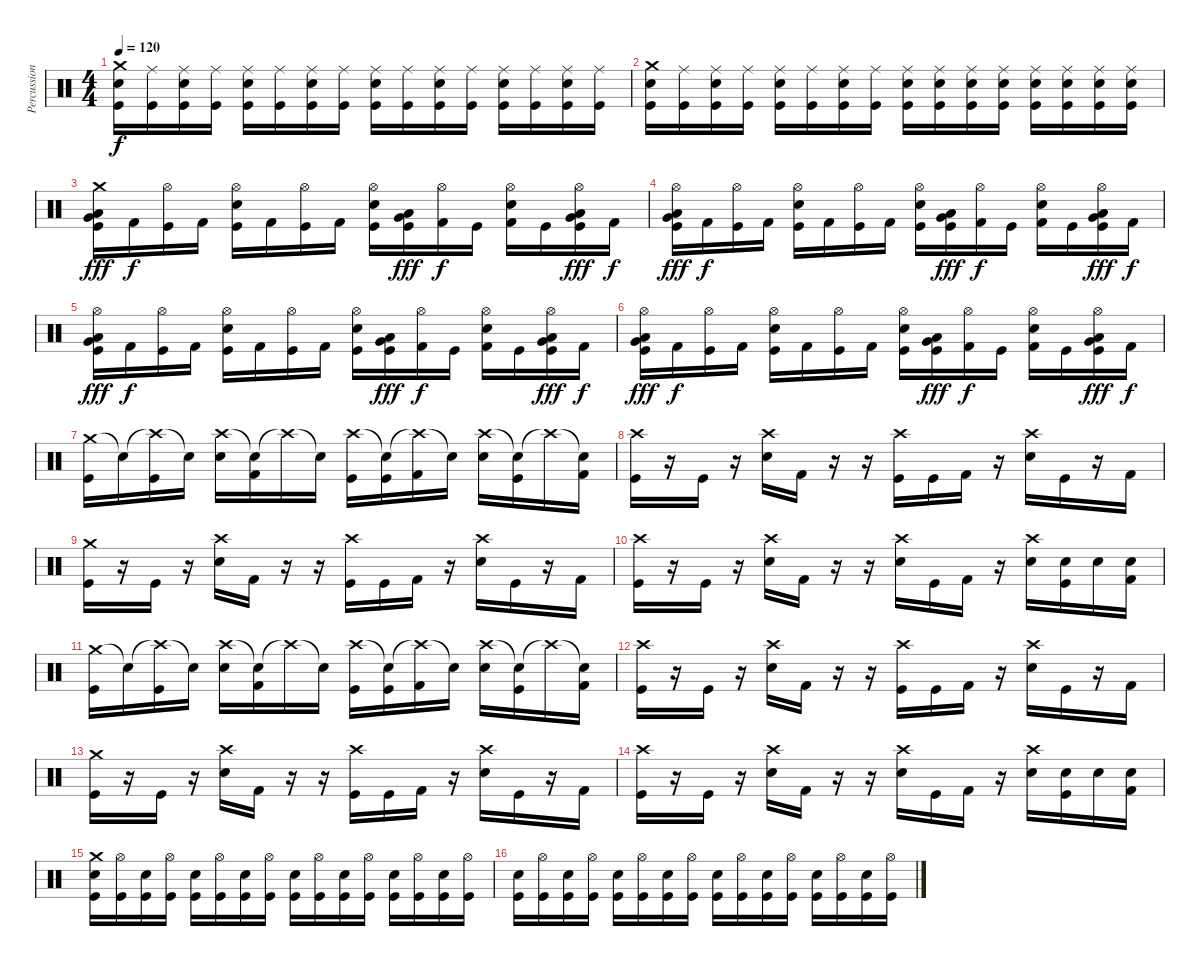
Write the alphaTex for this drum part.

\track ("Percussions" "Percussion") {instrument percussion}
\staff {score}
\articulation defaults
\ts (4 4)
\tempo 120
\clef neutral
\ks c
("Crash medium (hit)" "Electric Snare (hit)" "Kick (hit)").16{dy f} ("Ride (middle)" "Kick (hit)").16 ("Ride (middle)" "Electric Snare (hit)" "Kick (hit)").16 ("Ride (middle)" "Kick (hit)").16 ("Ride (middle)" "Electric Snare (hit)" "Kick (hit)").16 ("Ride (middle)" "Kick (hit)").16 ("Ride (middle)" "Electric Snare (hit)" "Kick (hit)").16 ("Ride (middle)" "Kick (hit)").16 ("Ride (middle)" "Electric Snare (hit)" "Kick (hit)").16 ("Ride (middle)" "Kick (hit)").16 ("Ride (middle)" "Electric Snare (hit)" "Kick (hit)").16 ("Ride (middle)" "Kick (hit)").16 ("Ride (middle)" "Electric Snare (hit)" "Kick (hit)").16 ("Ride (middle)" "Kick (hit)").16 ("Ride (middle)" "Electric Snare (hit)" "Kick (hit)").16 ("Ride (middle)" "Kick (hit)").16 |
("Crash medium (hit)" "Electric Snare (hit)" "Kick (hit)").16 ("Ride (middle)" "Kick (hit)").16 ("Ride (middle)" "Electric Snare (hit)" "Kick (hit)").16 ("Ride (middle)" "Kick (hit)").16 ("Ride (middle)" "Electric Snare (hit)" "Kick (hit)").16 ("Ride (middle)" "Kick (hit)").16 ("Ride (middle)" "Electric Snare (hit)" "Kick (hit)").16 ("Ride (middle)" "Kick (hit)").16 ("Ride (middle)" "Electric Snare (hit)" "Kick (hit)").16 ("Ride (middle)" "Electric Snare (hit)" "Kick (hit)").16 ("Ride (middle)" "Electric Snare (hit)" "Kick (hit)").16 ("Ride (middle)" "Electric Snare (hit)" "Kick (hit)").16 ("Ride (middle)" "Electric Snare (hit)" "Kick (hit)").16 ("Ride (middle)" "Electric Snare (hit)" "Kick (hit)").16 ("Ride (middle)" "Electric Snare (hit)" "Kick (hit)").16 ("Ride (middle)" "Electric Snare (hit)" "Kick (hit)").16 |
("Crash medium (hit)" "Very Low Tom (hit)" "Low Floor Tom (hit)" "Kick (hit)").16{dy fff} "Kick (hit) 2".16{dy f} ("Hi-Hat (open)" "Kick (hit)").16 "Kick (hit) 2".16 ("Hi-Hat (open)" "Electric Snare (hit)" "Kick (hit)").16 "Kick (hit) 2".16 ("Hi-Hat (open)" "Kick (hit)").16 "Kick (hit) 2".16 ("Hi-Hat (open)" "Electric Snare (hit)" "Kick (hit)").16 ("Very Low Tom (hit)" "Low Floor Tom (hit)" "Kick (hit)").16{dy fff} ("Hi-Hat (open)" "Kick (hit) 2").16{dy f} "Kick (hit)".16 ("Hi-Hat (open)" "Electric Snare (hit)" "Kick (hit) 2").16 "Kick (hit)".16 ("Hi-Hat (open)" "Very Low Tom (hit)" "Low Floor Tom (hit)" "Kick (hit)").16{dy fff} "Kick (hit) 2".16{dy f} |
("Hi-Hat (open)" "Very Low Tom (hit)" "Low Floor Tom (hit)" "Kick (hit)").16{dy fff} "Kick (hit) 2".16{dy f} ("Hi-Hat (open)" "Kick (hit)").16 "Kick (hit) 2".16 ("Hi-Hat (open)" "Electric Snare (hit)" "Kick (hit)").16 "Kick (hit) 2".16 ("Hi-Hat (open)" "Kick (hit)").16 "Kick (hit) 2".16 ("Hi-Hat (open)" "Electric Snare (hit)" "Kick (hit)").16 ("Very Low Tom (hit)" "Low Floor Tom (hit)" "Kick (hit)").16{dy fff} ("Hi-Hat (open)" "Kick (hit) 2").16{dy f} "Kick (hit)".16 ("Hi-Hat (open)" "Electric Snare (hit)" "Kick (hit) 2").16 "Kick (hit)".16 ("Hi-Hat (open)" "Very Low Tom (hit)" "Low Floor Tom (hit)" "Kick (hit)").16{dy fff} "Kick (hit) 2".16{dy f} |
("Hi-Hat (open)" "Very Low Tom (hit)" "Low Floor Tom (hit)" "Kick (hit)").16{dy fff} "Kick (hit) 2".16{dy f} ("Hi-Hat (open)" "Kick (hit)").16 "Kick (hit) 2".16 ("Hi-Hat (open)" "Electric Snare (hit)" "Kick (hit)").16 "Kick (hit) 2".16 ("Hi-Hat (open)" "Kick (hit)").16 "Kick (hit) 2".16 ("Hi-Hat (open)" "Electric Snare (hit)" "Kick (hit)").16 ("Very Low Tom (hit)" "Low Floor Tom (hit)" "Kick (hit)").16{dy fff} ("Hi-Hat (open)" "Kick (hit) 2").16{dy f} "Kick (hit)".16 ("Hi-Hat (open)" "Electric Snare (hit)" "Kick (hit) 2").16 "Kick (hit)".16 ("Hi-Hat (open)" "Very Low Tom (hit)" "Low Floor Tom (hit)" "Kick (hit)").16{dy fff} "Kick (hit) 2".16{dy f} |
("Hi-Hat (open)" "Very Low Tom (hit)" "Low Floor Tom (hit)" "Kick (hit)").16{dy fff} "Kick (hit) 2".16{dy f} ("Hi-Hat (open)" "Kick (hit)").16 "Kick (hit) 2".16 ("Hi-Hat (open)" "Electric Snare (hit)" "Kick (hit)").16 "Kick (hit) 2".16 ("Hi-Hat (open)" "Kick (hit)").16 "Kick (hit) 2".16 ("Hi-Hat (open)" "Electric Snare (hit)" "Kick (hit)").16 ("Very Low Tom (hit)" "Low Floor Tom (hit)" "Kick (hit)").16{dy fff} ("Hi-Hat (open)" "Kick (hit) 2").16{dy f} "Kick (hit)".16 ("Hi-Hat (open)" "Electric Snare (hit)" "Kick (hit) 2").16 "Kick (hit)".16 ("Hi-Hat (open)" "Very Low Tom (hit)" "Low Floor Tom (hit)" "Kick (hit)").16{dy fff} "Kick (hit) 2".16{dy f} |
("Crash medium (hit)" "Kick (hit)").16 "Snare (hit)"{t}.16 ("Crash high (hit)"{t} "Kick (hit)").16 "Snare (hit)"{t}.16 ("Crash high (hit)" "Electric Snare (hit)").16 ("Snare (hit)"{t} "Kick (hit) 2").16 "Crash high (hit)"{t}.16 "Snare (hit)"{t}.16 ("Crash high (hit)" "Kick (hit)").16 ("Snare (hit)"{t} "Kick (hit)").16 ("Crash high (hit)"{t} "Kick (hit) 2").16 "Snare (hit)"{t}.16 ("Crash high (hit)" "Electric Snare (hit)").16 ("Snare (hit)"{t} "Kick (hit)").16 "Crash high (hit)"{t}.16 ("Snare (hit)"{t} "Kick (hit) 2").16 |
("Crash high (hit)" "Kick (hit)").16 r.16 "Kick (hit)".16 r.16 ("Crash high (hit)" "Electric Snare (hit)").16 "Kick (hit) 2".16 r.16 r.16 ("Crash high (hit)" "Kick (hit)").16 "Kick (hit)".16 "Kick (hit) 2".16 r.16 ("Crash high (hit)" "Electric Snare (hit)").16 "Kick (hit)".16 r.16 "Kick (hit) 2".16 |
("Crash medium (hit)" "Kick (hit)").16 r.16 "Kick (hit)".16 r.16 ("Crash high (hit)" "Electric Snare (hit)").16 "Kick (hit) 2".16 r.16 r.16 ("Crash high (hit)" "Kick (hit)").16 "Kick (hit)".16 "Kick (hit) 2".16 r.16 ("Crash high (hit)" "Electric Snare (hit)").16 "Kick (hit)".16 r.16 "Kick (hit) 2".16 |
("Crash high (hit)" "Kick (hit)").16 r.16 "Kick (hit)".16 r.16 ("Crash high (hit)" "Electric Snare (hit)").16 "Kick (hit) 2".16 r.16 r.16 ("Crash high (hit)" "Electric Snare (hit)").16 "Kick (hit)".16 "Kick (hit) 2".16 r.16 ("Crash high (hit)" "Electric Snare (hit)").16 ("Electric Snare (hit)" "Kick (hit)").16 "Electric Snare (hit)".16 ("Electric Snare (hit)" "Kick (hit) 2").16 |
("Crash medium (hit)" "Kick (hit)").16 "Snare (hit)"{t}.16 ("Crash high (hit)"{t} "Kick (hit)").16 "Snare (hit)"{t}.16 ("Crash high (hit)" "Electric Snare (hit)").16 ("Snare (hit)"{t} "Kick (hit) 2").16 "Crash high (hit)"{t}.16 "Snare (hit)"{t}.16 ("Crash high (hit)" "Kick (hit)").16 ("Snare (hit)"{t} "Kick (hit)").16 ("Crash high (hit)"{t} "Kick (hit) 2").16 "Snare (hit)"{t}.16 ("Crash high (hit)" "Electric Snare (hit)").16 ("Snare (hit)"{t} "Kick (hit)").16 "Crash high (hit)"{t}.16 ("Snare (hit)"{t} "Kick (hit) 2").16 |
("Crash high (hit)" "Kick (hit)").16 r.16 "Kick (hit)".16 r.16 ("Crash high (hit)" "Electric Snare (hit)").16 "Kick (hit) 2".16 r.16 r.16 ("Crash high (hit)" "Kick (hit)").16 "Kick (hit)".16 "Kick (hit) 2".16 r.16 ("Crash high (hit)" "Electric Snare (hit)").16 "Kick (hit)".16 r.16 "Kick (hit) 2".16 |
("Crash medium (hit)" "Kick (hit)").16 r.16 "Kick (hit)".16 r.16 ("Crash high (hit)" "Electric Snare (hit)").16 "Kick (hit) 2".16 r.16 r.16 ("Crash high (hit)" "Kick (hit)").16 "Kick (hit)".16 "Kick (hit) 2".16 r.16 ("Crash high (hit)" "Electric Snare (hit)").16 "Kick (hit)".16 r.16 "Kick (hit) 2".16 |
("Crash high (hit)" "Kick (hit)").16 r.16 "Kick (hit)".16 r.16 ("Crash high (hit)" "Electric Snare (hit)").16 "Kick (hit) 2".16 r.16 r.16 ("Crash high (hit)" "Electric Snare (hit)").16 "Kick (hit)".16 "Kick (hit) 2".16 r.16 ("Crash high (hit)" "Electric Snare (hit)").16 ("Electric Snare (hit)" "Kick (hit)").16 "Electric Snare (hit)".16 ("Electric Snare (hit)" "Kick (hit) 2").16 |
("Crash medium (hit)" "Electric Snare (hit)" "Kick (hit)").16 ("Hi-Hat (open)" "Kick (hit)").16 ("Electric Snare (hit)" "Kick (hit)").16 ("Hi-Hat (open)" "Kick (hit)").16 ("Electric Snare (hit)" "Kick (hit)").16 ("Hi-Hat (open)" "Kick (hit)").16 ("Electric Snare (hit)" "Kick (hit)").16 ("Hi-Hat (open)" "Kick (hit)").16 ("Electric Snare (hit)" "Kick (hit)").16 ("Hi-Hat (open)" "Kick (hit)").16 ("Electric Snare (hit)" "Kick (hit)").16 ("Hi-Hat (open)" "Kick (hit)").16 ("Electric Snare (hit)" "Kick (hit)").16 ("Hi-Hat (open)" "Kick (hit)").16 ("Electric Snare (hit)" "Kick (hit)").16 ("Hi-Hat (open)" "Kick (hit)").16 |
("Electric Snare (hit)" "Kick (hit)").16 ("Hi-Hat (open)" "Kick (hit)").16 ("Electric Snare (hit)" "Kick (hit)").16 ("Hi-Hat (open)" "Kick (hit)").16 ("Electric Snare (hit)" "Kick (hit)").16 ("Hi-Hat (open)" "Kick (hit)").16 ("Electric Snare (hit)" "Kick (hit)").16 ("Hi-Hat (open)" "Kick (hit)").16 ("Electric Snare (hit)" "Kick (hit)").16 ("Hi-Hat (open)" "Kick (hit)").16 ("Electric Snare (hit)" "Kick (hit)").16 ("Hi-Hat (open)" "Kick (hit)").16 ("Electric Snare (hit)" "Kick (hit)").16 ("Hi-Hat (open)" "Kick (hit)").16 ("Electric Snare (hit)" "Kick (hit)").16 ("Hi-Hat (open)" "Kick (hit)").16
